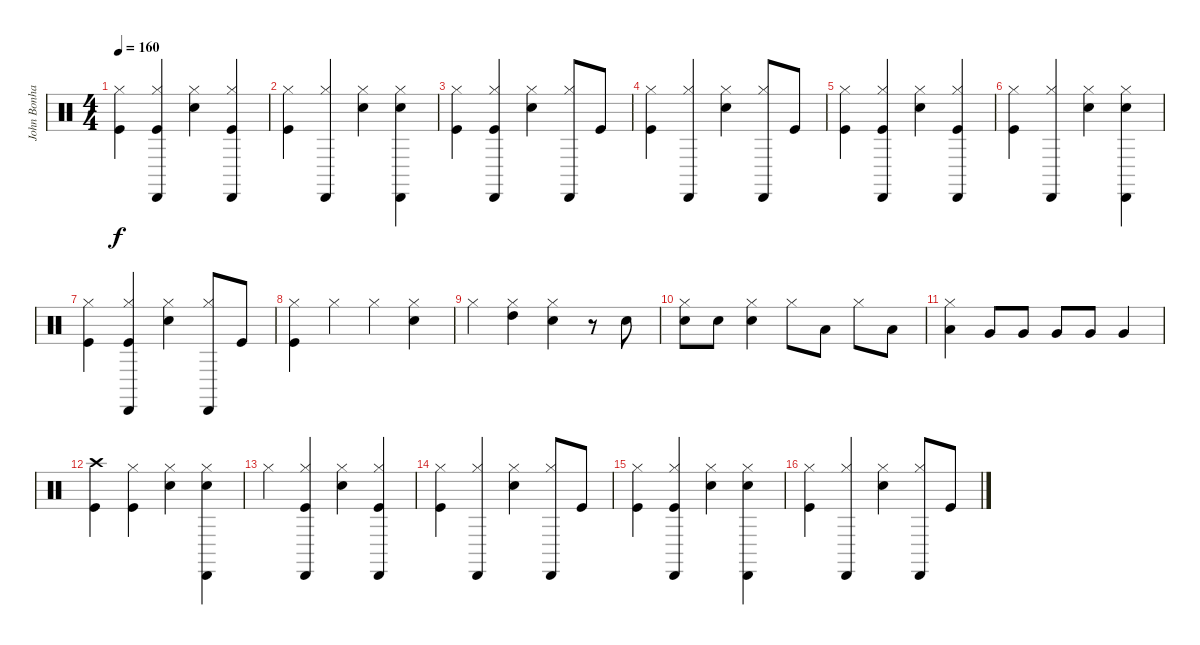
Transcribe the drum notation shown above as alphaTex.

\track ("John Bonham - Drums" "John Bonha") {instrument percussion}
\staff {score}
\articulation defaults
\ts (4 4)
\tempo 160
\clef neutral
\ks c
("Hi-Hat (closed)" "Kick (hit)").4{dy f} ("Hi-Hat (closed)" "Kick (hit)" "Cabasa (hit)").4 ("Hi-Hat (closed)" "Snare (hit) 2").4 ("Hi-Hat (closed)" "Kick (hit)" "Cabasa (hit)").4 |
("Hi-Hat (closed)" "Kick (hit)").4 ("Hi-Hat (closed)" "Cabasa (hit)").4 ("Snare (hit) 2" "Hi-Hat (closed)").4 ("Snare (hit) 2" "Hi-Hat (closed)" "Cabasa (hit)").4 |
("Hi-Hat (closed)" "Kick (hit)").4 ("Hi-Hat (closed)" "Kick (hit)" "Cabasa (hit)").4 ("Hi-Hat (closed)" "Snare (hit) 2").4 ("Hi-Hat (closed)" "Cabasa (hit)").8 "Kick (hit)".8 |
("Hi-Hat (closed)" "Kick (hit)").4 ("Hi-Hat (closed)" "Cabasa (hit)").4 ("Hi-Hat (closed)" "Snare (hit) 2").4 ("Hi-Hat (closed)" "Cabasa (hit)").8 "Kick (hit)".8 |
("Hi-Hat (closed)" "Kick (hit)").4 ("Kick (hit)" "Cabasa (hit)" "Hi-Hat (closed)").4 ("Snare (hit) 2" "Hi-Hat (closed)").4 ("Kick (hit)" "Hi-Hat (closed)" "Cabasa (hit)").4 |
("Kick (hit)" "Hi-Hat (closed)").4 ("Hi-Hat (closed)" "Cabasa (hit)").4 ("Snare (hit) 2" "Hi-Hat (closed)").4 ("Hi-Hat (closed)" "Cabasa (hit)" "Snare (hit) 2").4 |
("Hi-Hat (closed)" "Kick (hit)").4 ("Hi-Hat (closed)" "Kick (hit)" "Cabasa (hit)").4 ("Hi-Hat (closed)" "Snare (hit) 2").4 ("Hi-Hat (closed)" "Cabasa (hit)").8 "Kick (hit)".8 |
("Hi-Hat (closed)" "Kick (hit)").4 "Hi-Hat (closed)".4 "Hi-Hat (closed)".4 ("Hi-Hat (closed)" "Snare (hit) 2").4 |
"Hi-Hat (closed)".4 ("Hi-Hat (closed)" "High Tom (hit)").4 ("Hi-Hat (closed)" "Snare (hit) 2").4 r.8 "Snare (hit) 2".8 |
("Hi-Hat (closed)" "Snare (hit) 2").8 "Snare (hit) 2".8 ("Hi-Hat (closed)" "Snare (hit) 2").4 "Hi-Hat (closed)".8 "Low Tom (hit)".8 "Hi-Hat (closed)".8 "Low Tom (hit)".8 |
("Hi-Hat (closed)" "Low Tom (hit)").4 "Very Low Tom (hit)".8 "Very Low Tom (hit)".8 "Very Low Tom (hit)".8 "Very Low Tom (hit)".8 "Very Low Tom (hit)".4 |
("Kick (hit)" "Crash high (hit)").4 ("Hi-Hat (closed)" "Kick (hit)").4 ("Hi-Hat (closed)" "Snare (hit) 2").4 ("Snare (hit) 2" "Hi-Hat (closed)" "Cabasa (hit)").4 |
"Hi-Hat (closed)".4 ("Kick (hit)" "Cabasa (hit)" "Hi-Hat (closed)").4 ("Snare (hit) 2" "Hi-Hat (closed)").4 ("Kick (hit)" "Cabasa (hit)" "Hi-Hat (closed)").4 |
("Kick (hit)" "Hi-Hat (closed)").4 ("Hi-Hat (closed)" "Cabasa (hit)").4 ("Snare (hit) 2" "Hi-Hat (closed)").4 ("Hi-Hat (closed)" "Cabasa (hit)").8 "Kick (hit)".8 |
("Hi-Hat (closed)" "Kick (hit)").4 ("Hi-Hat (closed)" "Kick (hit)" "Cabasa (hit)").4 ("Hi-Hat (closed)" "Snare (hit) 2").4 ("Hi-Hat (closed)" "Snare (hit) 2" "Cabasa (hit)").4 |
("Hi-Hat (closed)" "Kick (hit)").4 ("Hi-Hat (closed)" "Cabasa (hit)").4 ("Snare (hit) 2" "Hi-Hat (closed)").4 ("Hi-Hat (closed)" "Cabasa (hit)").8 "Kick (hit)".8
